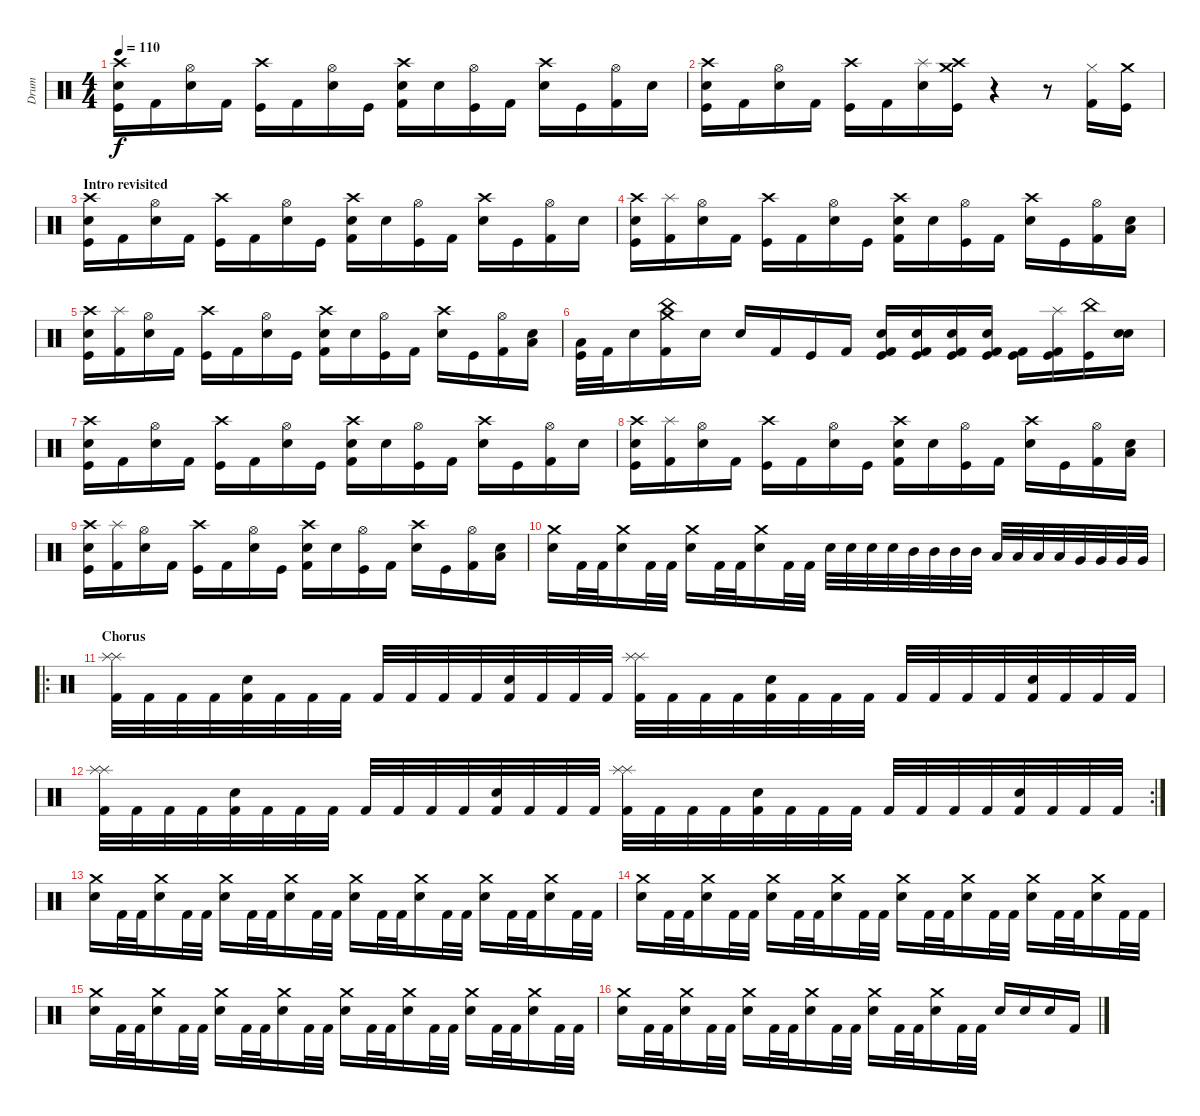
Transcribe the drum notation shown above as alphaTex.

\track ("Drum" "Drum") {instrument percussion}
\staff {score}
\articulation defaults
\ts (4 4)
\tempo 110
\clef neutral
\ks c
("Crash high (hit)" "Snare (hit)" "Kick (hit)").16{dy f} "Kick (hit) 2".16 ("Hi-Hat (open)" "Snare (hit) 2").16 "Kick (hit) 2".16 ("Crash high (hit)" "Kick (hit)").16 "Kick (hit) 2".16 ("Hi-Hat (open)" "Snare (hit) 2").16 "Kick (hit)".16 ("Crash high (hit)" "Snare (hit)" "Kick (hit) 2").16 "Snare (hit) 2".16 ("Hi-Hat (open)" "Kick (hit)").16 "Kick (hit) 2".16 ("Crash high (hit)" "Snare (hit) 2").16 "Kick (hit)".16 ("Hi-Hat (open)" "Kick (hit) 2").16 "Snare (hit) 2".16 |
("Crash high (hit)" "Snare (hit)" "Kick (hit)").16 "Kick (hit) 2".16 ("Hi-Hat (open)" "Snare (hit) 2").16 "Kick (hit) 2".16 ("Crash high (hit)" "Kick (hit)").16 "Kick (hit) 2".16 ("Splash (hit)" "Snare (hit) 2").16 ("Crash high (hit)" "Crash medium (hit)" "Kick (hit)").16 r.4 r.8 ("Hi-Hat (closed)" "Kick (hit) 2").16 ("Crash medium (hit)" "Kick (hit)").16 |
\section ("" "Intro revisited")
("Crash high (hit)" "Snare (hit)" "Kick (hit)").16 "Kick (hit) 2".16 ("Hi-Hat (open)" "Snare (hit) 2").16 "Kick (hit) 2".16 ("Crash high (hit)" "Kick (hit)").16 "Kick (hit) 2".16 ("Hi-Hat (open)" "Snare (hit) 2").16 "Kick (hit)".16 ("Crash high (hit)" "Snare (hit)" "Kick (hit) 2").16 "Snare (hit) 2".16 ("Hi-Hat (open)" "Kick (hit)").16 "Kick (hit) 2".16 ("Crash high (hit)" "Snare (hit) 2").16 "Kick (hit)".16 ("Hi-Hat (open)" "Kick (hit) 2").16 "Snare (hit) 2".16 |
("Crash high (hit)" "Snare (hit)" "Kick (hit)").16 ("Splash (hit)" "Kick (hit) 2").16 ("Hi-Hat (open)" "Snare (hit) 2").16 "Kick (hit) 2".16 ("Crash high (hit)" "Kick (hit)").16 "Kick (hit) 2".16 ("Hi-Hat (open)" "Snare (hit) 2").16 "Kick (hit)".16 ("Crash high (hit)" "Snare (hit)" "Kick (hit) 2").16 "Snare (hit) 2".16 ("Hi-Hat (open)" "Kick (hit)").16 "Kick (hit) 2".16 ("Crash high (hit)" "Snare (hit) 2").16 "Kick (hit)".16 ("Hi-Hat (open)" "Kick (hit) 2").16 ("Low Tom (hit)" "Snare (hit) 2").16 |
("Crash high (hit)" "Snare (hit)" "Kick (hit)").16 ("Splash (hit)" "Kick (hit) 2").16 ("Hi-Hat (open)" "Snare (hit) 2").16 "Kick (hit) 2".16 ("Crash high (hit)" "Kick (hit)").16 "Kick (hit) 2".16 ("Hi-Hat (open)" "Snare (hit) 2").16 "Kick (hit)".16 ("Crash high (hit)" "Snare (hit)" "Kick (hit) 2").16 "Snare (hit) 2".16 ("Hi-Hat (open)" "Kick (hit)").16 "Kick (hit) 2".16 ("Crash high (hit)" "Snare (hit) 2").16 "Kick (hit)".16 ("Hi-Hat (open)" "Kick (hit) 2").16 ("Low Tom (hit)" "Snare (hit) 2").16 |
("Low Tom (hit)" "Kick (hit)").32 "Kick (hit) 2".32 "Snare (hit) 2".16 ("China (hit)" "Crash medium (hit)" "Kick (hit) 2").16 "Snare (hit) 2".16 "Snare (hit) 2".16 "Kick (hit) 2".16 "Kick (hit)".16 "Kick (hit) 2".16 ("Snare (hit) 2" "Kick (hit) 2" "Kick (hit)").16 ("Snare (hit) 2" "Kick (hit) 2" "Kick (hit)").16 ("Snare (hit) 2" "Kick (hit) 2" "Kick (hit)").16 ("Snare (hit) 2" "Kick (hit) 2" "Kick (hit)").16 ("Kick (hit) 2" "Kick (hit)").16 ("Splash (hit)" "Kick (hit) 2" "Kick (hit)").16 ("China (hit)" "Kick (hit)").16 ("Electric Snare (hit)" "Snare (hit) 2").16 |
("Crash high (hit)" "Snare (hit)" "Kick (hit)").16 "Kick (hit) 2".16 ("Hi-Hat (open)" "Snare (hit) 2").16 "Kick (hit) 2".16 ("Crash high (hit)" "Kick (hit)").16 "Kick (hit) 2".16 ("Hi-Hat (open)" "Snare (hit) 2").16 "Kick (hit)".16 ("Crash high (hit)" "Snare (hit)" "Kick (hit) 2").16 "Snare (hit) 2".16 ("Hi-Hat (open)" "Kick (hit)").16 "Kick (hit) 2".16 ("Crash high (hit)" "Snare (hit) 2").16 "Kick (hit)".16 ("Hi-Hat (open)" "Kick (hit) 2").16 "Snare (hit) 2".16 |
("Crash high (hit)" "Snare (hit)" "Kick (hit)").16 ("Splash (hit)" "Kick (hit) 2").16 ("Hi-Hat (open)" "Snare (hit) 2").16 "Kick (hit) 2".16 ("Crash high (hit)" "Kick (hit)").16 "Kick (hit) 2".16 ("Hi-Hat (open)" "Snare (hit) 2").16 "Kick (hit)".16 ("Crash high (hit)" "Snare (hit)" "Kick (hit) 2").16 "Snare (hit) 2".16 ("Hi-Hat (open)" "Kick (hit)").16 "Kick (hit) 2".16 ("Crash high (hit)" "Snare (hit) 2").16 "Kick (hit)".16 ("Hi-Hat (open)" "Kick (hit) 2").16 ("Low Tom (hit)" "Snare (hit) 2").16 |
("Crash high (hit)" "Snare (hit)" "Kick (hit)").16 ("Splash (hit)" "Kick (hit) 2").16 ("Hi-Hat (open)" "Snare (hit) 2").16 "Kick (hit) 2".16 ("Crash high (hit)" "Kick (hit)").16 "Kick (hit) 2".16 ("Hi-Hat (open)" "Snare (hit) 2").16 "Kick (hit)".16 ("Crash high (hit)" "Snare (hit)" "Kick (hit) 2").16 "Snare (hit) 2".16 ("Hi-Hat (open)" "Kick (hit)").16 "Kick (hit) 2".16 ("Crash high (hit)" "Snare (hit) 2").16 "Kick (hit)".16 ("Hi-Hat (open)" "Kick (hit) 2").16 ("Low Tom (hit)" "Snare (hit) 2").16 |
("Crash medium (hit)" "Snare (hit) 2").16 "Kick (hit) 2".32 "Kick (hit) 2".32 ("Crash medium (hit)" "Snare (hit) 2").16 "Kick (hit) 2".32 "Kick (hit) 2".32 ("Crash medium (hit)" "Snare (hit) 2").16 "Kick (hit) 2".32 "Kick (hit) 2".32 ("Crash medium (hit)" "Snare (hit) 2").16 "Kick (hit) 2".32 "Kick (hit) 2".32 "Electric Snare (hit)".32 "Electric Snare (hit)".32 "Electric Snare (hit)".32 "Electric Snare (hit)".32 "Mid Tom (hit)".32 "Mid Tom (hit)".32 "Mid Tom (hit)".32 "Mid Tom (hit)".32 "Low Tom (hit)".32 "Low Tom (hit)".32 "Low Tom (hit)".32 "Low Tom (hit)".32 "Very Low Tom (hit)".32 "Very Low Tom (hit)".32 "Very Low Tom (hit)".32 "Very Low Tom (hit)".32 |
\ro
\section ("" "Chorus")
("Kick (hit) 2" "Splash (hit)" "Splash (hit)").32 "Kick (hit) 2".32 "Kick (hit) 2".32 "Kick (hit) 2".32 ("Kick (hit) 2" "Electric Snare (hit)").32 "Kick (hit) 2".32 "Kick (hit) 2".32 "Kick (hit) 2".32 "Kick (hit) 2".32 "Kick (hit) 2".32 "Kick (hit) 2".32 "Kick (hit) 2".32 ("Kick (hit) 2" "Electric Snare (hit)").32 "Kick (hit) 2".32 "Kick (hit) 2".32 "Kick (hit) 2".32 ("Kick (hit) 2" "Splash (hit)" "Splash (hit)").32 "Kick (hit) 2".32 "Kick (hit) 2".32 "Kick (hit) 2".32 ("Kick (hit) 2" "Electric Snare (hit)").32 "Kick (hit) 2".32 "Kick (hit) 2".32 "Kick (hit) 2".32 "Kick (hit) 2".32 "Kick (hit) 2".32 "Kick (hit) 2".32 "Kick (hit) 2".32 ("Kick (hit) 2" "Electric Snare (hit)").32 "Kick (hit) 2".32 "Kick (hit) 2".32 "Kick (hit) 2".32 |
\rc 2
("Kick (hit) 2" "Splash (hit)" "Splash (hit)").32 "Kick (hit) 2".32 "Kick (hit) 2".32 "Kick (hit) 2".32 ("Kick (hit) 2" "Electric Snare (hit)").32 "Kick (hit) 2".32 "Kick (hit) 2".32 "Kick (hit) 2".32 "Kick (hit) 2".32 "Kick (hit) 2".32 "Kick (hit) 2".32 "Kick (hit) 2".32 ("Kick (hit) 2" "Electric Snare (hit)").32 "Kick (hit) 2".32 "Kick (hit) 2".32 "Kick (hit) 2".32 ("Kick (hit) 2" "Splash (hit)" "Splash (hit)").32 "Kick (hit) 2".32 "Kick (hit) 2".32 "Kick (hit) 2".32 ("Kick (hit) 2" "Electric Snare (hit)").32 "Kick (hit) 2".32 "Kick (hit) 2".32 "Kick (hit) 2".32 "Kick (hit) 2".32 "Kick (hit) 2".32 "Kick (hit) 2".32 "Kick (hit) 2".32 ("Kick (hit) 2" "Electric Snare (hit)").32 "Kick (hit) 2".32 "Kick (hit) 2".32 "Kick (hit) 2".32 |
("Crash medium (hit)" "Snare (hit) 2").16 "Kick (hit) 2".32 "Kick (hit) 2".32 ("Crash medium (hit)" "Snare (hit) 2").16 "Kick (hit) 2".32 "Kick (hit) 2".32 ("Crash medium (hit)" "Snare (hit) 2").16 "Kick (hit) 2".32 "Kick (hit) 2".32 ("Crash medium (hit)" "Snare (hit) 2").16 "Kick (hit) 2".32 "Kick (hit) 2".32 ("Crash medium (hit)" "Snare (hit) 2").16 "Kick (hit) 2".32 "Kick (hit) 2".32 ("Crash medium (hit)" "Snare (hit) 2").16 "Kick (hit) 2".32 "Kick (hit) 2".32 ("Crash medium (hit)" "Snare (hit) 2").16 "Kick (hit) 2".32 "Kick (hit) 2".32 ("Crash medium (hit)" "Snare (hit) 2").16 "Kick (hit) 2".32 "Kick (hit) 2".32 |
("Crash medium (hit)" "Snare (hit) 2").16 "Kick (hit) 2".32 "Kick (hit) 2".32 ("Crash medium (hit)" "Snare (hit) 2").16 "Kick (hit) 2".32 "Kick (hit) 2".32 ("Crash medium (hit)" "Snare (hit) 2").16 "Kick (hit) 2".32 "Kick (hit) 2".32 ("Crash medium (hit)" "Snare (hit) 2").16 "Kick (hit) 2".32 "Kick (hit) 2".32 ("Crash medium (hit)" "Snare (hit) 2").16 "Kick (hit) 2".32 "Kick (hit) 2".32 ("Crash medium (hit)" "Snare (hit) 2").16 "Kick (hit) 2".32 "Kick (hit) 2".32 ("Crash medium (hit)" "Snare (hit) 2").16 "Kick (hit) 2".32 "Kick (hit) 2".32 ("Crash medium (hit)" "Snare (hit) 2").16 "Kick (hit) 2".32 "Kick (hit) 2".32 |
("Crash medium (hit)" "Snare (hit) 2").16 "Kick (hit) 2".32 "Kick (hit) 2".32 ("Crash medium (hit)" "Snare (hit) 2").16 "Kick (hit) 2".32 "Kick (hit) 2".32 ("Crash medium (hit)" "Snare (hit) 2").16 "Kick (hit) 2".32 "Kick (hit) 2".32 ("Crash medium (hit)" "Snare (hit) 2").16 "Kick (hit) 2".32 "Kick (hit) 2".32 ("Crash medium (hit)" "Snare (hit) 2").16 "Kick (hit) 2".32 "Kick (hit) 2".32 ("Crash medium (hit)" "Snare (hit) 2").16 "Kick (hit) 2".32 "Kick (hit) 2".32 ("Crash medium (hit)" "Snare (hit) 2").16 "Kick (hit) 2".32 "Kick (hit) 2".32 ("Crash medium (hit)" "Snare (hit) 2").16 "Kick (hit) 2".32 "Kick (hit) 2".32 |
("Crash medium (hit)" "Snare (hit) 2").16 "Kick (hit) 2".32 "Kick (hit) 2".32 ("Crash medium (hit)" "Snare (hit) 2").16 "Kick (hit) 2".32 "Kick (hit) 2".32 ("Crash medium (hit)" "Snare (hit) 2").16 "Kick (hit) 2".32 "Kick (hit) 2".32 ("Crash medium (hit)" "Snare (hit) 2").16 "Kick (hit) 2".32 "Kick (hit) 2".32 ("Crash medium (hit)" "Snare (hit) 2").16 "Kick (hit) 2".32 "Kick (hit) 2".32 ("Crash medium (hit)" "Snare (hit) 2").16 "Kick (hit) 2".32 "Kick (hit) 2".32 "Electric Snare (hit)".16 "Electric Snare (hit)".16 "Snare (hit) 2".16 "Kick (hit) 2".16
